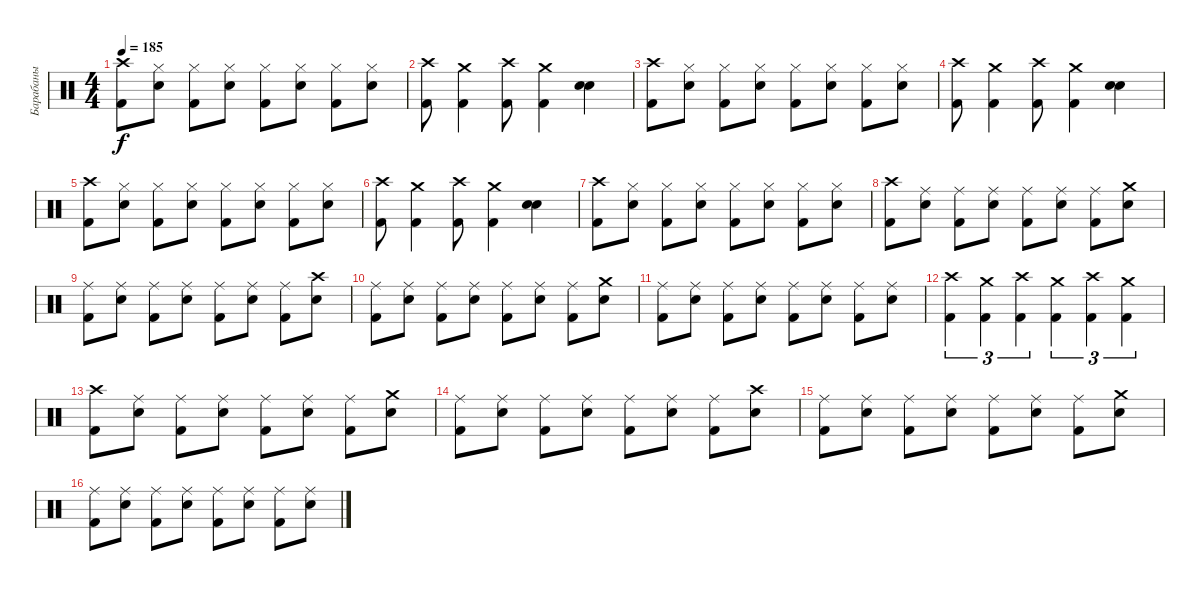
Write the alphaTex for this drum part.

\track ("Барабаны" "Барабаны") {instrument percussion}
\staff {score}
\articulation defaults
\ts (4 4)
\tempo 185
\clef neutral
\ks c
("Crash high (hit)" "Kick (hit) 2").8{dy f} ("Hi-Hat (closed)" "Snare (hit) 2").8 ("Hi-Hat (closed)" "Kick (hit) 2").8 ("Hi-Hat (closed)" "Snare (hit) 2").8 ("Hi-Hat (closed)" "Kick (hit) 2").8 ("Hi-Hat (closed)" "Snare (hit) 2").8 ("Hi-Hat (closed)" "Kick (hit) 2").8 ("Hi-Hat (closed)" "Snare (hit) 2").8 |
("Crash high (hit)" "Kick (hit) 2").8 ("Crash medium (hit)" "Kick (hit) 2").4 ("Crash high (hit)" "Kick (hit) 2").8 ("Crash medium (hit)" "Kick (hit) 2").4 ("Snare (hit) 2" "Snare (hit) 2").4 |
("Crash high (hit)" "Kick (hit) 2").8 ("Hi-Hat (closed)" "Snare (hit) 2").8 ("Hi-Hat (closed)" "Kick (hit) 2").8 ("Hi-Hat (closed)" "Snare (hit) 2").8 ("Hi-Hat (closed)" "Kick (hit) 2").8 ("Hi-Hat (closed)" "Snare (hit) 2").8 ("Hi-Hat (closed)" "Kick (hit) 2").8 ("Hi-Hat (closed)" "Snare (hit) 2").8 |
("Crash high (hit)" "Kick (hit) 2").8 ("Crash medium (hit)" "Kick (hit) 2").4 ("Crash high (hit)" "Kick (hit) 2").8 ("Crash medium (hit)" "Kick (hit) 2").4 ("Snare (hit) 2" "Snare (hit) 2").4 |
("Crash high (hit)" "Kick (hit) 2").8 ("Hi-Hat (closed)" "Snare (hit) 2").8 ("Hi-Hat (closed)" "Kick (hit) 2").8 ("Hi-Hat (closed)" "Snare (hit) 2").8 ("Hi-Hat (closed)" "Kick (hit) 2").8 ("Hi-Hat (closed)" "Snare (hit) 2").8 ("Hi-Hat (closed)" "Kick (hit) 2").8 ("Hi-Hat (closed)" "Snare (hit) 2").8 |
("Crash high (hit)" "Kick (hit) 2").8 ("Crash medium (hit)" "Kick (hit) 2").4 ("Crash high (hit)" "Kick (hit) 2").8 ("Crash medium (hit)" "Kick (hit) 2").4 ("Snare (hit) 2" "Snare (hit) 2").4 |
("Crash high (hit)" "Kick (hit) 2").8 ("Hi-Hat (closed)" "Snare (hit) 2").8 ("Hi-Hat (closed)" "Kick (hit) 2").8 ("Hi-Hat (closed)" "Snare (hit) 2").8 ("Hi-Hat (closed)" "Kick (hit) 2").8 ("Hi-Hat (closed)" "Snare (hit) 2").8 ("Hi-Hat (closed)" "Kick (hit) 2").8 ("Hi-Hat (closed)" "Snare (hit) 2").8 |
("Crash high (hit)" "Kick (hit) 2").8 ("Ride (middle)" "Snare (hit) 2").8 ("Ride (middle)" "Kick (hit) 2").8 ("Ride (middle)" "Snare (hit) 2").8 ("Ride (middle)" "Kick (hit) 2").8 ("Ride (middle)" "Snare (hit) 2").8 ("Ride (middle)" "Kick (hit) 2").8 ("Crash medium (hit)" "Snare (hit) 2").8 |
("Ride (middle)" "Kick (hit) 2").8 ("Ride (middle)" "Snare (hit) 2").8 ("Ride (middle)" "Kick (hit) 2").8 ("Ride (middle)" "Snare (hit) 2").8 ("Ride (middle)" "Kick (hit) 2").8 ("Ride (middle)" "Snare (hit) 2").8 ("Ride (middle)" "Kick (hit) 2").8 ("Crash high (hit)" "Snare (hit) 2").8 |
("Ride (middle)" "Kick (hit) 2").8 ("Ride (middle)" "Snare (hit) 2").8 ("Ride (middle)" "Kick (hit) 2").8 ("Ride (middle)" "Snare (hit) 2").8 ("Ride (middle)" "Kick (hit) 2").8 ("Ride (middle)" "Snare (hit) 2").8 ("Ride (middle)" "Kick (hit) 2").8 ("Crash medium (hit)" "Snare (hit) 2").8 |
("Ride (middle)" "Kick (hit) 2").8 ("Ride (middle)" "Snare (hit) 2").8 ("Ride (middle)" "Kick (hit) 2").8 ("Ride (middle)" "Snare (hit) 2").8 ("Ride (middle)" "Kick (hit) 2").8 ("Ride (middle)" "Snare (hit) 2").8 ("Ride (middle)" "Kick (hit) 2").8 ("Ride (middle)" "Snare (hit) 2").8 |
("Crash high (hit)" "Kick (hit) 2").4{tu (3 2)} ("Crash medium (hit)" "Kick (hit) 2").4{tu (3 2)} ("Crash high (hit)" "Kick (hit) 2").4{tu (3 2)} ("Crash medium (hit)" "Kick (hit) 2").4{tu (3 2)} ("Crash high (hit)" "Kick (hit) 2").4{tu (3 2)} ("Crash medium (hit)" "Kick (hit) 2").4{tu (3 2)} |
("Crash high (hit)" "Kick (hit) 2").8 ("Ride (middle)" "Snare (hit) 2").8 ("Ride (middle)" "Kick (hit) 2").8 ("Ride (middle)" "Snare (hit) 2").8 ("Ride (middle)" "Kick (hit) 2").8 ("Ride (middle)" "Snare (hit) 2").8 ("Ride (middle)" "Kick (hit) 2").8 ("Crash medium (hit)" "Snare (hit) 2").8 |
("Ride (middle)" "Kick (hit) 2").8 ("Ride (middle)" "Snare (hit) 2").8 ("Ride (middle)" "Kick (hit) 2").8 ("Ride (middle)" "Snare (hit) 2").8 ("Ride (middle)" "Kick (hit) 2").8 ("Ride (middle)" "Snare (hit) 2").8 ("Ride (middle)" "Kick (hit) 2").8 ("Crash high (hit)" "Snare (hit) 2").8 |
("Ride (middle)" "Kick (hit) 2").8 ("Ride (middle)" "Snare (hit) 2").8 ("Ride (middle)" "Kick (hit) 2").8 ("Ride (middle)" "Snare (hit) 2").8 ("Ride (middle)" "Kick (hit) 2").8 ("Ride (middle)" "Snare (hit) 2").8 ("Ride (middle)" "Kick (hit) 2").8 ("Crash medium (hit)" "Snare (hit) 2").8 |
("Ride (middle)" "Kick (hit) 2").8 ("Ride (middle)" "Snare (hit) 2").8 ("Ride (middle)" "Kick (hit) 2").8 ("Ride (middle)" "Snare (hit) 2").8 ("Ride (middle)" "Kick (hit) 2").8 ("Ride (middle)" "Snare (hit) 2").8 ("Ride (middle)" "Kick (hit) 2").8 ("Ride (middle)" "Snare (hit) 2").8
